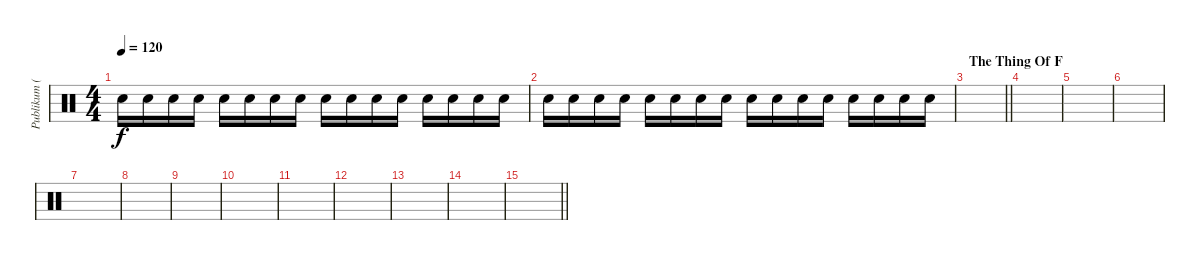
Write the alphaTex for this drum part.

\track ("Publikum (klapper)" "Publikum (") {instrument percussion}
\staff {score}
\articulation defaults
\ts (4 4)
\tempo 120
\clef neutral
\ks c "Hand Clap (hit)".16{dy f} "Hand Clap (hit)".16 "Hand Clap (hit)".16 "Hand Clap (hit)".16 "Hand Clap (hit)".16 "Hand Clap (hit)".16 "Hand Clap (hit)".16 "Hand Clap (hit)".16 "Hand Clap (hit)".16 "Hand Clap (hit)".16 "Hand Clap (hit)".16 "Hand Clap (hit)".16 "Hand Clap (hit)".16 "Hand Clap (hit)".16 "Hand Clap (hit)".16 "Hand Clap (hit)".16
|
"Hand Clap (hit)".16 "Hand Clap (hit)".16 "Hand Clap (hit)".16 "Hand Clap (hit)".16 "Hand Clap (hit)".16 "Hand Clap (hit)".16 "Hand Clap (hit)".16 "Hand Clap (hit)".16 "Hand Clap (hit)".16 "Hand Clap (hit)".16 "Hand Clap (hit)".16 "Hand Clap (hit)".16 "Hand Clap (hit)".16 "Hand Clap (hit)".16 "Hand Clap (hit)".16 "Hand Clap (hit)".16 |
\section ("" "The Thing Of F")
\barLineRight lightlight
|
|
|
|
|
|
|
|
|
|
|
|
\barLineRight lightlight
